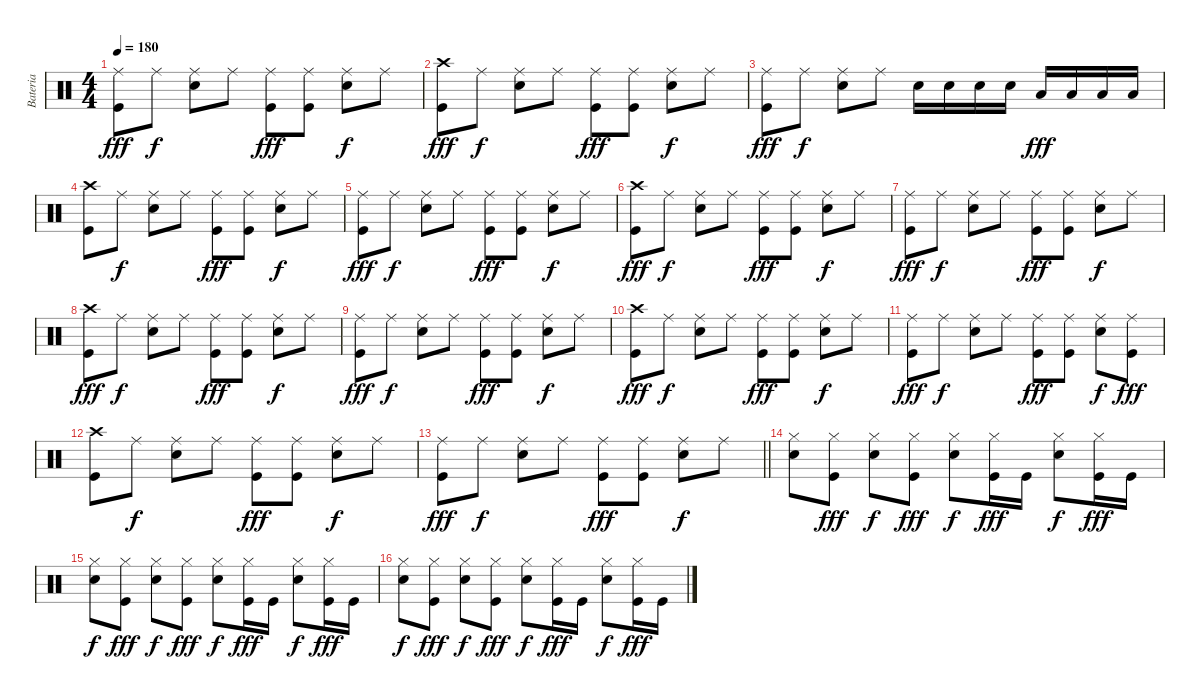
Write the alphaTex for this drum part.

\track ("Bateria" "Bateria") {instrument percussion}
\staff {score}
\articulation defaults
\ts (4 4)
\tempo 180
\clef neutral
\ks c
("Ride (middle)" "Kick (hit)").8{dy fff} "Ride (middle)".8{dy f} ("Ride (middle)" "Snare (hit) 2").8 "Ride (middle)".8 ("Ride (middle)" "Kick (hit)").8{dy fff} ("Ride (middle)" "Kick (hit)").8 ("Ride (middle)" "Snare (hit) 2").8{dy f} "Ride (middle)".8 |
("Crash high (hit)" "Kick (hit)").8{dy fff} "Ride (middle)".8{dy f} ("Ride (middle)" "Snare (hit) 2").8 "Ride (middle)".8 ("Ride (middle)" "Kick (hit)").8{dy fff} ("Ride (middle)" "Kick (hit)").8 ("Ride (middle)" "Snare (hit) 2").8{dy f} "Ride (middle)".8 |
("Ride (middle)" "Kick (hit)").8{dy fff} "Ride (middle)".8{dy f} ("Ride (middle)" "Snare (hit) 2").8 "Ride (middle)".8 "Snare (hit) 2".16 "Snare (hit) 2".16 "Snare (hit) 2".16 "Snare (hit) 2".16 "Low Tom (hit)".16{dy fff} "Low Tom (hit)".16 "Low Tom (hit)".16 "Low Tom (hit)".16 |
("Crash high (hit)" "Kick (hit)").8 "Ride (middle)".8{dy f} ("Ride (middle)" "Snare (hit) 2").8 "Ride (middle)".8 ("Ride (middle)" "Kick (hit)").8{dy fff} ("Ride (middle)" "Kick (hit)").8 ("Ride (middle)" "Snare (hit) 2").8{dy f} "Ride (middle)".8 |
("Ride (middle)" "Kick (hit)").8{dy fff} "Ride (middle)".8{dy f} ("Ride (middle)" "Snare (hit) 2").8 "Ride (middle)".8 ("Ride (middle)" "Kick (hit)").8{dy fff} ("Ride (middle)" "Kick (hit)").8 ("Ride (middle)" "Snare (hit) 2").8{dy f} "Ride (middle)".8 |
("Crash high (hit)" "Kick (hit)").8{dy fff} "Ride (middle)".8{dy f} ("Ride (middle)" "Snare (hit) 2").8 "Ride (middle)".8 ("Ride (middle)" "Kick (hit)").8{dy fff} ("Ride (middle)" "Kick (hit)").8 ("Ride (middle)" "Snare (hit) 2").8{dy f} "Ride (middle)".8 |
("Ride (middle)" "Kick (hit)").8{dy fff} "Ride (middle)".8{dy f} ("Ride (middle)" "Snare (hit) 2").8 "Ride (middle)".8 ("Ride (middle)" "Kick (hit)").8{dy fff} ("Ride (middle)" "Kick (hit)").8 ("Ride (middle)" "Snare (hit) 2").8{dy f} "Ride (middle)".8 |
("Crash high (hit)" "Kick (hit)").8{dy fff} "Ride (middle)".8{dy f} ("Ride (middle)" "Snare (hit) 2").8 "Ride (middle)".8 ("Ride (middle)" "Kick (hit)").8{dy fff} ("Ride (middle)" "Kick (hit)").8 ("Ride (middle)" "Snare (hit) 2").8{dy f} "Ride (middle)".8 |
("Ride (middle)" "Kick (hit)").8{dy fff} "Ride (middle)".8{dy f} ("Ride (middle)" "Snare (hit) 2").8 "Ride (middle)".8 ("Ride (middle)" "Kick (hit)").8{dy fff} ("Ride (middle)" "Kick (hit)").8 ("Ride (middle)" "Snare (hit) 2").8{dy f} "Ride (middle)".8 |
("Crash high (hit)" "Kick (hit)").8{dy fff} "Ride (middle)".8{dy f} ("Ride (middle)" "Snare (hit) 2").8 "Ride (middle)".8 ("Ride (middle)" "Kick (hit)").8{dy fff} ("Ride (middle)" "Kick (hit)").8 ("Ride (middle)" "Snare (hit) 2").8{dy f} "Ride (middle)".8 |
("Ride (middle)" "Kick (hit)").8{dy fff} "Ride (middle)".8{dy f} ("Ride (middle)" "Snare (hit) 2").8 "Ride (middle)".8 ("Ride (middle)" "Kick (hit)").8{dy fff} ("Ride (middle)" "Kick (hit)").8 ("Ride (middle)" "Snare (hit) 2").8{dy f} ("Ride (middle)" "Kick (hit)").8{dy fff} |
("Crash high (hit)" "Kick (hit)").8 "Ride (middle)".8{dy f} ("Ride (middle)" "Snare (hit) 2").8 "Ride (middle)".8 ("Ride (middle)" "Kick (hit)").8{dy fff} ("Ride (middle)" "Kick (hit)").8 ("Ride (middle)" "Snare (hit) 2").8{dy f} "Ride (middle)".8 |
\barLineRight lightlight
("Ride (middle)" "Kick (hit)").8{dy fff} "Ride (middle)".8{dy f} ("Ride (middle)" "Snare (hit) 2").8 "Ride (middle)".8 ("Ride (middle)" "Kick (hit)").8{dy fff} ("Ride (middle)" "Kick (hit)").8 ("Ride (middle)" "Snare (hit) 2").8{dy f} "Ride (middle)".8 |
("Hi-Hat (closed)" "Snare (hit) 2").8 ("Hi-Hat (closed)" "Kick (hit)").8{dy fff} ("Hi-Hat (closed)" "Snare (hit) 2").8{dy f} ("Hi-Hat (closed)" "Kick (hit)").8{dy fff} ("Hi-Hat (closed)" "Snare (hit) 2").8{dy f} ("Hi-Hat (closed)" "Kick (hit)").16{dy fff} "Kick (hit)".16 ("Hi-Hat (closed)" "Snare (hit) 2").8{dy f} ("Hi-Hat (closed)" "Kick (hit)").16{dy fff} "Kick (hit)".16 |
("Hi-Hat (closed)" "Snare (hit) 2").8{dy f} ("Hi-Hat (closed)" "Kick (hit)").8{dy fff} ("Hi-Hat (closed)" "Snare (hit) 2").8{dy f} ("Hi-Hat (closed)" "Kick (hit)").8{dy fff} ("Hi-Hat (closed)" "Snare (hit) 2").8{dy f} ("Hi-Hat (closed)" "Kick (hit)").16{dy fff} "Kick (hit)".16 ("Hi-Hat (closed)" "Snare (hit) 2").8{dy f} ("Hi-Hat (closed)" "Kick (hit)").16{dy fff} "Kick (hit)".16 |
("Hi-Hat (closed)" "Snare (hit) 2").8{dy f} ("Hi-Hat (closed)" "Kick (hit)").8{dy fff} ("Hi-Hat (closed)" "Snare (hit) 2").8{dy f} ("Hi-Hat (closed)" "Kick (hit)").8{dy fff} ("Hi-Hat (closed)" "Snare (hit) 2").8{dy f} ("Hi-Hat (closed)" "Kick (hit)").16{dy fff} "Kick (hit)".16 ("Hi-Hat (closed)" "Snare (hit) 2").8{dy f} ("Hi-Hat (closed)" "Kick (hit)").16{dy fff} "Kick (hit)".16
